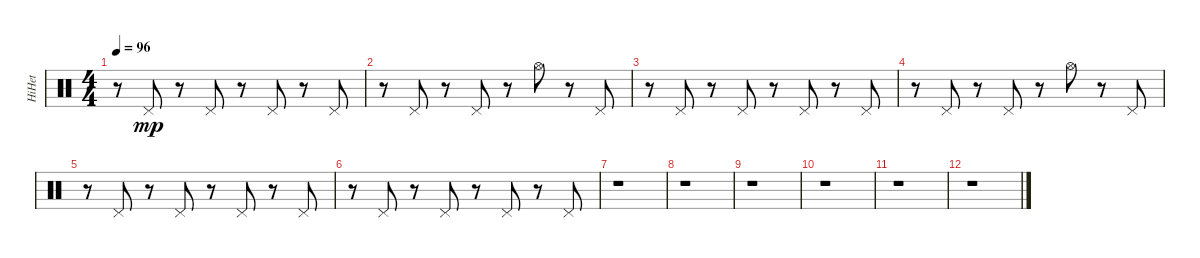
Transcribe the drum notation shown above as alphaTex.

\track ("HiHet" "HiHet") {instrument percussion}
\staff {score}
\articulation defaults
\ts (4 4)
\tempo 96
\clef neutral
\ks c
r.8{dy mp} "Pedal Hi-Hat (hit)".8 r.8 "Pedal Hi-Hat (hit)".8 r.8 "Pedal Hi-Hat (hit)".8 r.8 "Pedal Hi-Hat (hit)".8 |
r.8 "Pedal Hi-Hat (hit)".8 r.8 "Pedal Hi-Hat (hit)".8 r.8 "Hi-Hat (open)".8 r.8 "Pedal Hi-Hat (hit)".8 |
r.8 "Pedal Hi-Hat (hit)".8 r.8 "Pedal Hi-Hat (hit)".8 r.8 "Pedal Hi-Hat (hit)".8 r.8 "Pedal Hi-Hat (hit)".8 |
r.8 "Pedal Hi-Hat (hit)".8 r.8 "Pedal Hi-Hat (hit)".8 r.8 "Hi-Hat (open)".8 r.8 "Pedal Hi-Hat (hit)".8 |
r.8 "Pedal Hi-Hat (hit)".8 r.8 "Pedal Hi-Hat (hit)".8 r.8 "Pedal Hi-Hat (hit)".8 r.8 "Pedal Hi-Hat (hit)".8 |
r.8 "Pedal Hi-Hat (hit)".8 r.8 "Pedal Hi-Hat (hit)".8 r.8 "Pedal Hi-Hat (hit)".8 r.8 "Pedal Hi-Hat (hit)".8 |
r.1 |
r.1 |
r.1 |
r.1 |
r.1 |
r.1
